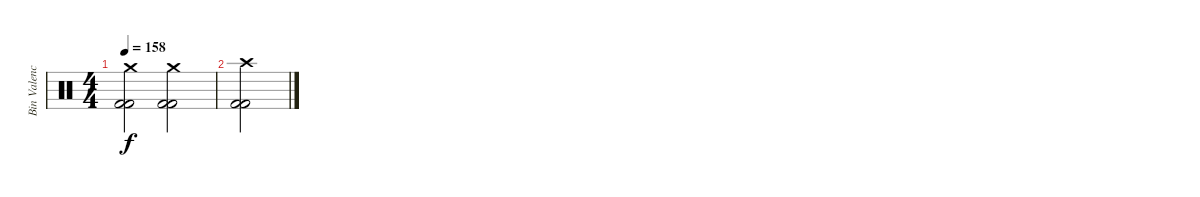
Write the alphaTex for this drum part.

\track ("Bin Valencia (bateria)" "Bin Valenc") {instrument percussion}
\staff {score}
\articulation defaults
\ts (4 4)
\tempo 158
\clef neutral
\ks c
("Crash medium (hit)" "Kick (hit) 2" "Kick (hit) 2").2{dy f} ("Crash medium (hit)" "Kick (hit) 2" "Kick (hit) 2").2 |
("Crash high (hit)" "Kick (hit) 2" "Kick (hit) 2").2
